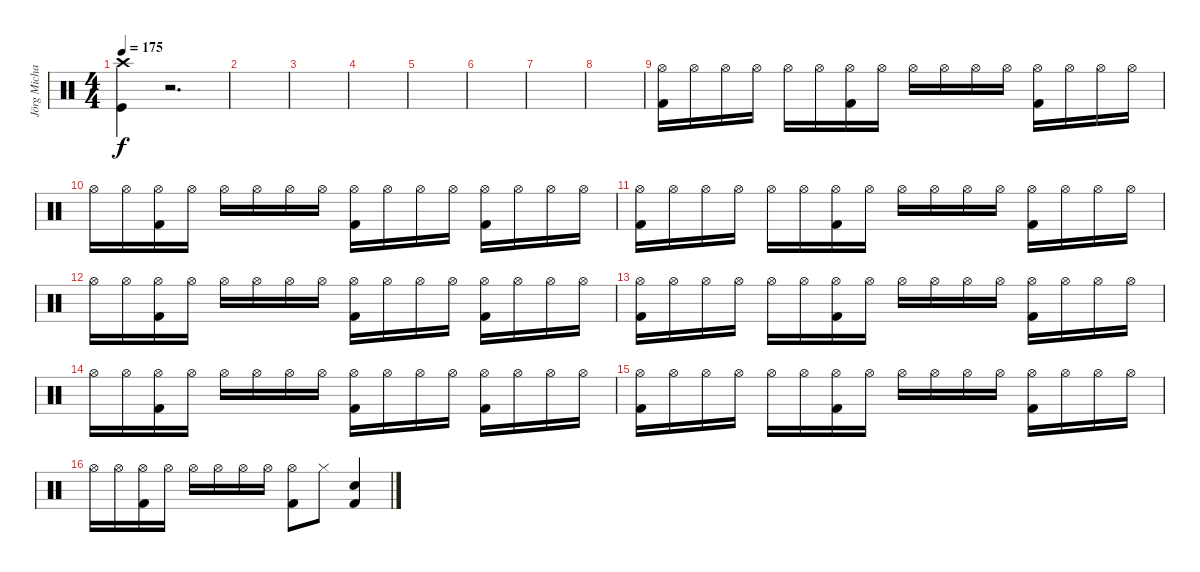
\track ("Jörg Michael" "Jörg Micha") {instrument percussion}
\staff {score}
\articulation defaults
\ts (4 4)
\tempo 175
\clef neutral
\ks c
("Kick (hit)" "Crash high (hit)").4{dy f} r.2{d} |
|
|
|
|
|
|
|
("Kick (hit) 2" "Hi-Hat (open)").16 "Hi-Hat (open)".16 "Hi-Hat (open)".16 "Hi-Hat (open)".16 "Hi-Hat (open)".16 "Hi-Hat (open)".16 ("Kick (hit) 2" "Hi-Hat (open)").16 "Hi-Hat (open)".16 "Hi-Hat (open)".16 "Hi-Hat (open)".16 "Hi-Hat (open)".16 "Hi-Hat (open)".16 ("Kick (hit) 2" "Hi-Hat (open)").16 "Hi-Hat (open)".16 "Hi-Hat (open)".16 "Hi-Hat (open)".16 |
"Hi-Hat (open)".16 "Hi-Hat (open)".16 ("Kick (hit) 2" "Hi-Hat (open)").16 "Hi-Hat (open)".16 "Hi-Hat (open)".16 "Hi-Hat (open)".16 "Hi-Hat (open)".16 "Hi-Hat (open)".16 ("Kick (hit) 2" "Hi-Hat (open)").16 "Hi-Hat (open)".16 "Hi-Hat (open)".16 "Hi-Hat (open)".16 ("Kick (hit) 2" "Hi-Hat (open)").16 "Hi-Hat (open)".16 "Hi-Hat (open)".16 "Hi-Hat (open)".16 |
("Kick (hit) 2" "Hi-Hat (open)").16 "Hi-Hat (open)".16 "Hi-Hat (open)".16 "Hi-Hat (open)".16 "Hi-Hat (open)".16 "Hi-Hat (open)".16 ("Kick (hit) 2" "Hi-Hat (open)").16 "Hi-Hat (open)".16 "Hi-Hat (open)".16 "Hi-Hat (open)".16 "Hi-Hat (open)".16 "Hi-Hat (open)".16 ("Kick (hit) 2" "Hi-Hat (open)").16 "Hi-Hat (open)".16 "Hi-Hat (open)".16 "Hi-Hat (open)".16 |
"Hi-Hat (open)".16 "Hi-Hat (open)".16 ("Kick (hit) 2" "Hi-Hat (open)").16 "Hi-Hat (open)".16 "Hi-Hat (open)".16 "Hi-Hat (open)".16 "Hi-Hat (open)".16 "Hi-Hat (open)".16 ("Kick (hit) 2" "Hi-Hat (open)").16 "Hi-Hat (open)".16 "Hi-Hat (open)".16 "Hi-Hat (open)".16 ("Kick (hit) 2" "Hi-Hat (open)").16 "Hi-Hat (open)".16 "Hi-Hat (open)".16 "Hi-Hat (open)".16 |
("Kick (hit) 2" "Hi-Hat (open)").16 "Hi-Hat (open)".16 "Hi-Hat (open)".16 "Hi-Hat (open)".16 "Hi-Hat (open)".16 "Hi-Hat (open)".16 ("Kick (hit) 2" "Hi-Hat (open)").16 "Hi-Hat (open)".16 "Hi-Hat (open)".16 "Hi-Hat (open)".16 "Hi-Hat (open)".16 "Hi-Hat (open)".16 ("Kick (hit) 2" "Hi-Hat (open)").16 "Hi-Hat (open)".16 "Hi-Hat (open)".16 "Hi-Hat (open)".16 |
"Hi-Hat (open)".16 "Hi-Hat (open)".16 ("Kick (hit) 2" "Hi-Hat (open)").16 "Hi-Hat (open)".16 "Hi-Hat (open)".16 "Hi-Hat (open)".16 "Hi-Hat (open)".16 "Hi-Hat (open)".16 ("Kick (hit) 2" "Hi-Hat (open)").16 "Hi-Hat (open)".16 "Hi-Hat (open)".16 "Hi-Hat (open)".16 ("Kick (hit) 2" "Hi-Hat (open)").16 "Hi-Hat (open)".16 "Hi-Hat (open)".16 "Hi-Hat (open)".16 |
("Kick (hit) 2" "Hi-Hat (open)").16 "Hi-Hat (open)".16 "Hi-Hat (open)".16 "Hi-Hat (open)".16 "Hi-Hat (open)".16 "Hi-Hat (open)".16 ("Kick (hit) 2" "Hi-Hat (open)").16 "Hi-Hat (open)".16 "Hi-Hat (open)".16 "Hi-Hat (open)".16 "Hi-Hat (open)".16 "Hi-Hat (open)".16 ("Kick (hit) 2" "Hi-Hat (open)").16 "Hi-Hat (open)".16 "Hi-Hat (open)".16 "Hi-Hat (open)".16 |
"Hi-Hat (open)".16 "Hi-Hat (open)".16 ("Kick (hit) 2" "Hi-Hat (open)").16 "Hi-Hat (open)".16 "Hi-Hat (open)".16 "Hi-Hat (open)".16 "Hi-Hat (open)".16 "Hi-Hat (open)".16 ("Kick (hit) 2" "Hi-Hat (open)").8 "Hi-Hat (closed)".8 ("Kick (hit) 2" "Electric Snare (hit)").4
